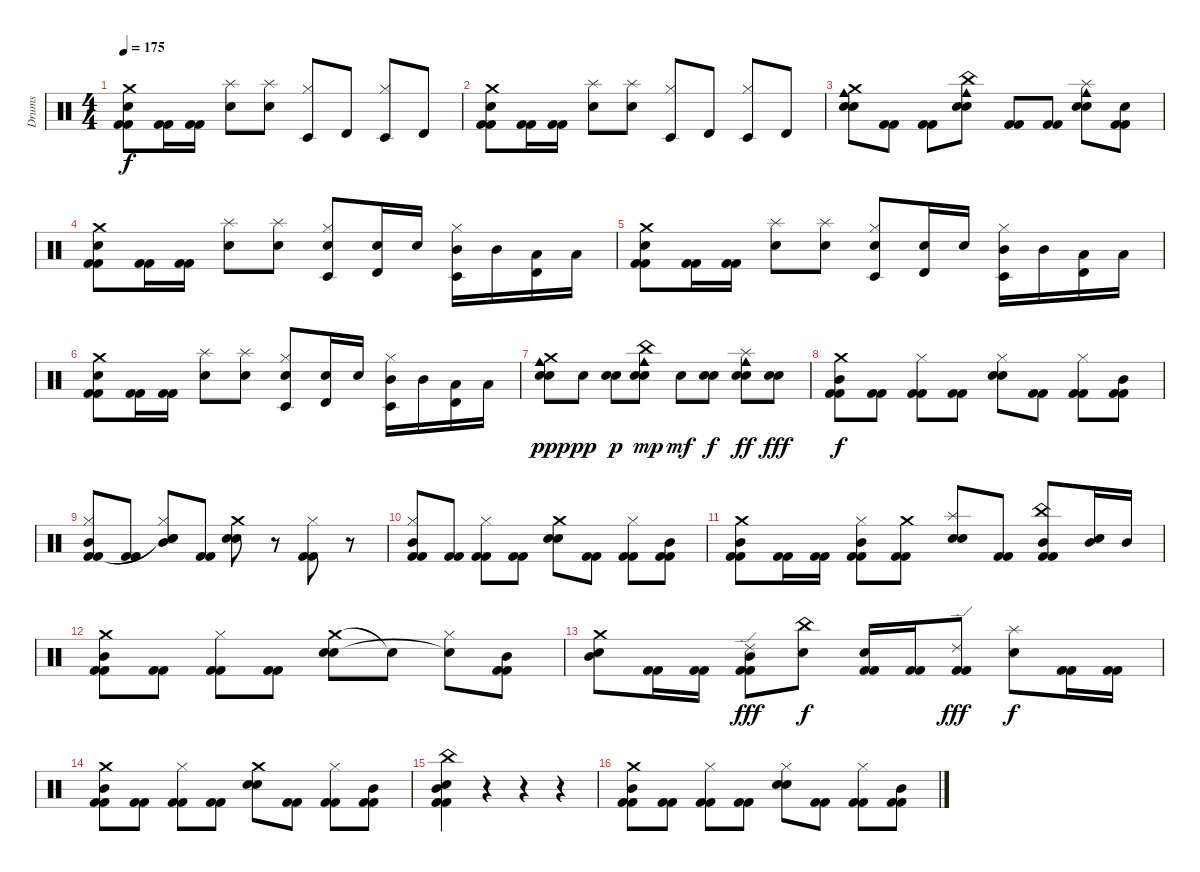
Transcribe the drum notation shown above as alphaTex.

\track ("Drums" "Drums") {instrument percussion}
\staff {score}
\articulation defaults
\ts (4 4)
\tempo 175
\clef neutral
\ks c
("Crash medium (hit)" "Electric Snare (hit)" "Kick (hit) 2" "Kick (hit) 2").8{dy f} ("Kick (hit) 2" "Kick (hit) 2").16 ("Kick (hit) 2" "Kick (hit) 2").16 ("Splash (hit)" "Snare (hit) 2").8 ("Splash (hit)" "Snare (hit) 2").8 ("Hi-Hat (closed)" "Timbale low (hit)").8 "Timbale high (hit)".8 ("Hi-Hat (closed)" "Timbale low (hit)").8 "Timbale high (hit)".8 |
("Crash medium (hit)" "Electric Snare (hit)" "Kick (hit) 2" "Kick (hit) 2").8 ("Kick (hit) 2" "Kick (hit) 2").16 ("Kick (hit) 2" "Kick (hit) 2").16 ("Splash (hit)" "Snare (hit) 2").8 ("Splash (hit)" "Snare (hit) 2").8 ("Hi-Hat (closed)" "Timbale low (hit)").8 "Timbale high (hit)".8 ("Hi-Hat (closed)" "Timbale low (hit)").8 "Timbale high (hit)".8 |
("Crash medium (hit)" "Electric Snare (hit)" "Snare (hit) 2" "Cowbell medium (hit)").8 ("Kick (hit) 2" "Kick (hit) 2").8 ("Kick (hit) 2" "Kick (hit) 2").8 ("China (hit)" "Electric Snare (hit)" "Snare (hit) 2" "Cowbell medium (hit)").8 ("Kick (hit) 2" "Kick (hit) 2").8 ("Kick (hit) 2" "Kick (hit) 2").8 ("Splash (hit)" "Electric Snare (hit)" "Snare (hit) 2" "Cowbell medium (hit)").8 ("Electric Snare (hit)" "Kick (hit) 2" "Kick (hit) 2").8 |
("Crash medium (hit)" "Electric Snare (hit)" "Kick (hit) 2" "Kick (hit) 2").8 ("Kick (hit) 2" "Kick (hit) 2").16 ("Kick (hit) 2" "Kick (hit) 2").16 ("Splash (hit)" "Snare (hit) 2").8 ("Splash (hit)" "Snare (hit) 2").8 ("Hi-Hat (closed)" "Electric Snare (hit)" "Timbale low (hit)").8 ("Snare (hit) 2" "Timbale high (hit)").16 "Snare (hit) 2".16 ("Hi-Hat (closed)" "Mid Tom (hit)" "Timbale low (hit)").16 "Mid Tom (hit)".16 ("Low Tom (hit)" "Timbale high (hit)").16 "Low Tom (hit)".16 |
("Crash medium (hit)" "Electric Snare (hit)" "Kick (hit) 2" "Kick (hit) 2").8 ("Kick (hit) 2" "Kick (hit) 2").16 ("Kick (hit) 2" "Kick (hit) 2").16 ("Splash (hit)" "Snare (hit) 2").8 ("Splash (hit)" "Snare (hit) 2").8 ("Hi-Hat (closed)" "Electric Snare (hit)" "Timbale low (hit)").8 ("Snare (hit) 2" "Timbale high (hit)").16 "Snare (hit) 2".16 ("Hi-Hat (closed)" "Mid Tom (hit)" "Timbale low (hit)").16 "Mid Tom (hit)".16 ("Low Tom (hit)" "Timbale high (hit)").16 "Low Tom (hit)".16 |
("Crash medium (hit)" "Electric Snare (hit)" "Kick (hit) 2" "Kick (hit) 2").8 ("Kick (hit) 2" "Kick (hit) 2").16 ("Kick (hit) 2" "Kick (hit) 2").16 ("Splash (hit)" "Snare (hit) 2").8 ("Splash (hit)" "Snare (hit) 2").8 ("Hi-Hat (closed)" "Electric Snare (hit)" "Timbale low (hit)").8 ("Snare (hit) 2" "Timbale high (hit)").16 "Snare (hit) 2".16 ("Hi-Hat (closed)" "Mid Tom (hit)" "Timbale low (hit)").16 "Mid Tom (hit)".16 ("Low Tom (hit)" "Timbale high (hit)").16 "Low Tom (hit)".16 |
("Crash medium (hit)" "Electric Snare (hit)" "Snare (hit) 2" "Cowbell medium (hit)").8{dy ppp} "Snare (hit) 2".8{dy pp} ("Electric Snare (hit)" "Snare (hit) 2").8{dy p} ("China (hit)" "Electric Snare (hit)" "Snare (hit) 2" "Cowbell medium (hit)").8{dy mp} "Snare (hit) 2".8{dy mf} ("Electric Snare (hit)" "Snare (hit) 2").8{dy f} ("Splash (hit)" "Electric Snare (hit)" "Snare (hit) 2" "Cowbell medium (hit)").8{dy ff} ("Electric Snare (hit)" "Snare (hit) 2").8{dy fff} |
("Crash medium (hit)" "Mid Tom (hit)" "Kick (hit) 2" "Kick (hit) 2").8{dy f} ("Kick (hit) 2" "Kick (hit) 2").8 ("Hi-Hat (closed)" "Kick (hit) 2" "Kick (hit) 2").8 ("Kick (hit) 2" "Kick (hit) 2").8 ("Hi-Hat (closed)" "Electric Snare (hit)" "Snare (hit) 2").8 ("Kick (hit) 2" "Kick (hit) 2").8 ("Hi-Hat (closed)" "Kick (hit) 2" "Kick (hit) 2").8 ("Mid Tom (hit)" "Kick (hit) 2" "Kick (hit) 2").8 |
("Hi-Hat (closed)" "Mid Tom (hit)" "Kick (hit) 2" "Kick (hit) 2").8 ("Kick (hit) 2" "Kick (hit) 2").8 ("Hi-Hat (closed)" "Mid Tom (hit)" "Snare (hit)"{t} "Snare (hit)"{t}).8 ("Kick (hit) 2" "Kick (hit) 2").8 ("Crash medium (hit)" "Electric Snare (hit)" "Snare (hit) 2").8 r.8 ("Hi-Hat (closed)" "Kick (hit) 2" "Kick (hit) 2").8 r.8 |
("Hi-Hat (closed)" "Mid Tom (hit)" "Kick (hit) 2" "Kick (hit) 2").8 ("Kick (hit) 2" "Kick (hit) 2").8 ("Hi-Hat (closed)" "Kick (hit) 2" "Kick (hit) 2").8 ("Kick (hit) 2" "Kick (hit) 2").8 ("Crash medium (hit)" "Electric Snare (hit)" "Snare (hit) 2").8 ("Kick (hit) 2" "Kick (hit) 2").8 ("Hi-Hat (closed)" "Kick (hit) 2" "Kick (hit) 2").8 ("Mid Tom (hit)" "Kick (hit) 2" "Kick (hit) 2").8 |
("Crash medium (hit)" "Mid Tom (hit)" "Kick (hit) 2" "Kick (hit) 2").8 ("Kick (hit) 2" "Kick (hit) 2").16 ("Kick (hit) 2" "Kick (hit) 2").16 ("Hi-Hat (closed)" "Mid Tom (hit)" "Kick (hit) 2" "Kick (hit) 2").8 ("Crash medium (hit)" "Kick (hit) 2" "Kick (hit) 2").8 ("Splash (hit)" "Electric Snare (hit)" "Snare (hit) 2").8 ("Kick (hit) 2" "Kick (hit) 2").8 ("China (hit)" "Mid Tom (hit)" "Kick (hit) 2" "Kick (hit) 2").8 ("Mid Tom (hit)" "Snare (hit) 2").16 "Mid Tom (hit)".16 |
("Crash medium (hit)" "Mid Tom (hit)" "Kick (hit) 2" "Kick (hit) 2").8 ("Kick (hit) 2" "Kick (hit) 2").8 ("Hi-Hat (closed)" "Kick (hit) 2" "Kick (hit) 2").8 ("Kick (hit) 2" "Kick (hit) 2").8 ("Crash medium (hit)" "Electric Snare (hit)" "Snare (hit) 2").8 "Snare (hit)"{t}.8 ("Hi-Hat (closed)" "Snare (hit)"{t}).8 ("Mid Tom (hit)" "Kick (hit) 2" "Kick (hit) 2").8 |
("Crash medium (hit)" "Mid Tom (hit)" "Snare (hit) 2").8 ("Kick (hit) 2" "Kick (hit) 2").16 ("Kick (hit) 2" "Kick (hit) 2").16 ("Ride (edge) 2" "Mid Tom (hit)" "Kick (hit) 2" "Kick (hit) 2").8{dy fff} ("China (hit)" "Snare (hit) 2").8{dy f} ("Electric Snare (hit)" "Kick (hit) 2" "Kick (hit) 2").16 ("Kick (hit) 2" "Kick (hit) 2").16 ("Ride (edge) 2" "Kick (hit) 2" "Kick (hit) 2").8{dy fff} ("Splash (hit)" "Snare (hit) 2").8{dy f} ("Kick (hit) 2" "Kick (hit) 2").16 ("Kick (hit) 2" "Kick (hit) 2").16 |
("Crash medium (hit)" "Mid Tom (hit)" "Kick (hit) 2" "Kick (hit) 2").8 ("Kick (hit) 2" "Kick (hit) 2").8 ("Hi-Hat (closed)" "Kick (hit) 2" "Kick (hit) 2").8 ("Kick (hit) 2" "Kick (hit) 2").8 ("Crash medium (hit)" "Electric Snare (hit)" "Snare (hit) 2").8 ("Kick (hit) 2" "Kick (hit) 2").8 ("Hi-Hat (closed)" "Kick (hit) 2" "Kick (hit) 2").8 ("Mid Tom (hit)" "Kick (hit) 2" "Kick (hit) 2").8 |
("China (hit)" "Electric Snare (hit)" "Mid Tom (hit)" "Kick (hit) 2" "Kick (hit) 2").4 r.4 r.4 r.4 |
("Crash medium (hit)" "Mid Tom (hit)" "Kick (hit) 2" "Kick (hit) 2").8 ("Kick (hit) 2" "Kick (hit) 2").8 ("Hi-Hat (closed)" "Kick (hit) 2" "Kick (hit) 2").8 ("Kick (hit) 2" "Kick (hit) 2").8 ("Hi-Hat (closed)" "Electric Snare (hit)" "Snare (hit) 2").8 ("Kick (hit) 2" "Kick (hit) 2").8 ("Hi-Hat (closed)" "Kick (hit) 2" "Kick (hit) 2").8 ("Mid Tom (hit)" "Kick (hit) 2" "Kick (hit) 2").8
